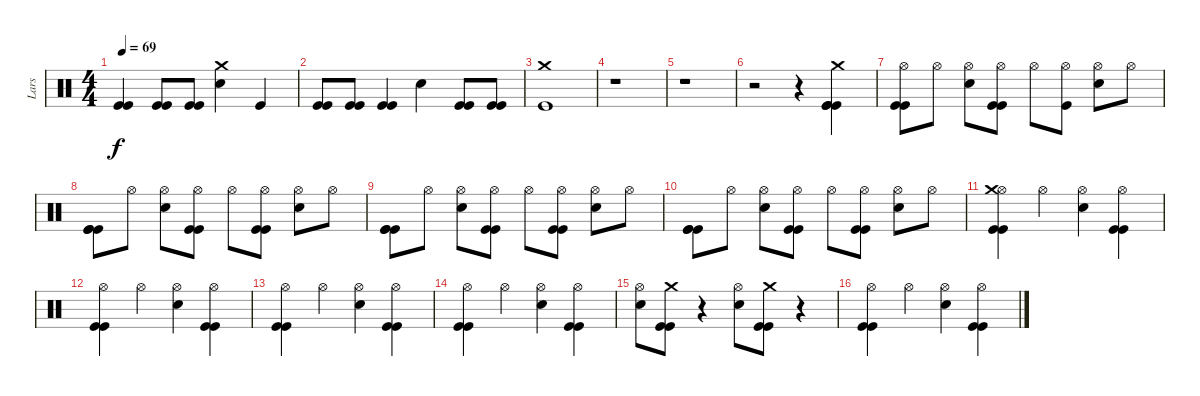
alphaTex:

\track ("Lars" "Lars") {instrument percussion}
\staff {score}
\articulation defaults
\ts (4 4)
\tempo 69
\clef neutral
\ks c
("Kick (hit)" "Kick (hit)").4{dy f} ("Kick (hit)" "Kick (hit)").8 ("Kick (hit)" "Kick (hit)").8 ("Electric Snare (hit)" "Crash medium (hit)").4 "Kick (hit)".4 |
("Kick (hit)" "Kick (hit)").8 ("Kick (hit)" "Kick (hit)").8 ("Kick (hit)" "Kick (hit)").4 "Electric Snare (hit)".4 ("Kick (hit)" "Kick (hit)").8 ("Kick (hit)" "Kick (hit)").8 |
("Kick (hit)" "Crash medium (hit)").1 |
r.1 |
r.1 |
r.2 r.4 ("Kick (hit)" "Kick (hit)" "Kick (hit)" "Crash medium (hit)").4 |
("Hi-Hat (open)" "Kick (hit)" "Kick (hit)").8 "Hi-Hat (open)".8 ("Hi-Hat (open)" "Electric Snare (hit)").8 ("Hi-Hat (open)" "Kick (hit)" "Kick (hit)").8 "Hi-Hat (open)".8 ("Hi-Hat (open)" "Kick (hit)").8 ("Hi-Hat (open)" "Electric Snare (hit)").8 "Hi-Hat (open)".8 |
("Kick (hit)" "Kick (hit)" "Kick (hit)").8 "Hi-Hat (open)".8 ("Hi-Hat (open)" "Electric Snare (hit)").8 ("Hi-Hat (open)" "Kick (hit)" "Kick (hit)").8 "Hi-Hat (open)".8 ("Hi-Hat (open)" "Kick (hit)" "Kick (hit)").8 ("Hi-Hat (open)" "Electric Snare (hit)").8 "Hi-Hat (open)".8 |
("Kick (hit)" "Kick (hit)" "Kick (hit)").8 "Hi-Hat (open)".8 ("Hi-Hat (open)" "Electric Snare (hit)").8 ("Hi-Hat (open)" "Kick (hit)" "Kick (hit)").8 "Hi-Hat (open)".8 ("Hi-Hat (open)" "Kick (hit)" "Kick (hit)").8 ("Hi-Hat (open)" "Electric Snare (hit)").8 "Hi-Hat (open)".8 |
("Kick (hit)" "Kick (hit)" "Kick (hit)").8 "Hi-Hat (open)".8 ("Hi-Hat (open)" "Electric Snare (hit)").8 ("Hi-Hat (open)" "Kick (hit)" "Kick (hit)").8 "Hi-Hat (open)".8 ("Hi-Hat (open)" "Kick (hit)" "Kick (hit)").8 ("Hi-Hat (open)" "Electric Snare (hit)").8 "Hi-Hat (open)".8 |
("Hi-Hat (open)" "Kick (hit)" "Kick (hit)" "Crash medium (hit)").4 "Hi-Hat (open)".4 ("Hi-Hat (open)" "Electric Snare (hit)").4 ("Hi-Hat (open)" "Kick (hit)" "Kick (hit)").4 |
("Hi-Hat (open)" "Kick (hit)" "Kick (hit)").4 "Hi-Hat (open)".4 ("Hi-Hat (open)" "Electric Snare (hit)").4 ("Hi-Hat (open)" "Kick (hit)" "Kick (hit)").4 |
("Hi-Hat (open)" "Kick (hit)" "Kick (hit)").4 "Hi-Hat (open)".4 ("Hi-Hat (open)" "Electric Snare (hit)").4 ("Hi-Hat (open)" "Kick (hit)" "Kick (hit)").4 |
("Hi-Hat (open)" "Kick (hit)" "Kick (hit)").4 "Hi-Hat (open)".4 ("Hi-Hat (open)" "Electric Snare (hit)").4 ("Hi-Hat (open)" "Kick (hit)" "Kick (hit)").4 |
("Hi-Hat (open)" "Electric Snare (hit)").8 ("Kick (hit)" "Kick (hit)" "Crash medium (hit)").8 r.4 ("Hi-Hat (open)" "Electric Snare (hit)").8 ("Kick (hit)" "Kick (hit)" "Crash medium (hit)").8 r.4 |
("Hi-Hat (open)" "Kick (hit)" "Kick (hit)").4 "Hi-Hat (open)".4 ("Hi-Hat (open)" "Electric Snare (hit)").4 ("Hi-Hat (open)" "Kick (hit)" "Kick (hit)").4
